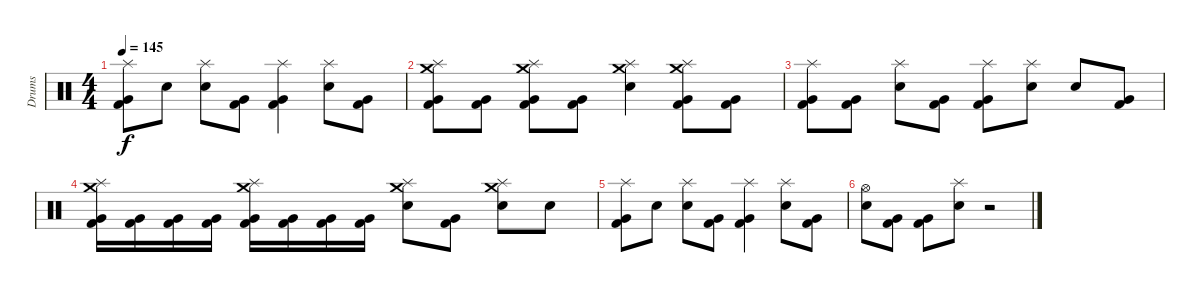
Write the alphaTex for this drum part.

\track ("Drums" "Drums") {instrument percussion}
\staff {score}
\articulation defaults
\ts (4 4)
\tempo 145
\clef neutral
\ks c
("Splash (hit)" "Very Low Tom (hit)" "Kick (hit) 2").8{dy f} "Snare (hit) 2".8 ("Splash (hit)" "Snare (hit) 2").8 ("Very Low Tom (hit)" "Kick (hit) 2").8 ("Splash (hit)" "Very Low Tom (hit)" "Kick (hit) 2").4 ("Splash (hit)" "Snare (hit) 2").8 ("Very Low Tom (hit)" "Kick (hit) 2").8 |
("Splash (hit)" "Crash medium (hit)" "Very Low Tom (hit)" "Kick (hit) 2").8 ("Very Low Tom (hit)" "Kick (hit) 2").8 ("Splash (hit)" "Crash medium (hit)" "Very Low Tom (hit)" "Kick (hit) 2").8 ("Very Low Tom (hit)" "Kick (hit) 2").8 ("Splash (hit)" "Crash medium (hit)" "Snare (hit) 2").4 ("Splash (hit)" "Crash medium (hit)" "Very Low Tom (hit)" "Kick (hit) 2").8 ("Very Low Tom (hit)" "Kick (hit) 2").8 |
("Splash (hit)" "Very Low Tom (hit)" "Kick (hit) 2").8 ("Very Low Tom (hit)" "Kick (hit) 2").8 ("Splash (hit)" "Snare (hit) 2").8 ("Very Low Tom (hit)" "Kick (hit) 2").8 ("Splash (hit)" "Very Low Tom (hit)" "Kick (hit) 2").8 ("Splash (hit)" "Snare (hit) 2").8 "Snare (hit) 2".8 ("Very Low Tom (hit)" "Kick (hit) 2").8 |
("Splash (hit)" "Crash medium (hit)" "Very Low Tom (hit)" "Kick (hit) 2").16 ("Very Low Tom (hit)" "Kick (hit) 2").16 ("Very Low Tom (hit)" "Kick (hit) 2").16 ("Very Low Tom (hit)" "Kick (hit) 2").16 ("Splash (hit)" "Crash medium (hit)" "Very Low Tom (hit)" "Kick (hit) 2").16 ("Very Low Tom (hit)" "Kick (hit) 2").16 ("Very Low Tom (hit)" "Kick (hit) 2").16 ("Very Low Tom (hit)" "Kick (hit) 2").16 ("Splash (hit)" "Crash medium (hit)" "Snare (hit) 2").8 ("Very Low Tom (hit)" "Kick (hit) 2").8 ("Splash (hit)" "Crash medium (hit)" "Snare (hit) 2").8 "Snare (hit) 2".8 |
("Splash (hit)" "Very Low Tom (hit)" "Kick (hit) 2").8 "Snare (hit) 2".8 ("Splash (hit)" "Snare (hit) 2").8 ("Very Low Tom (hit)" "Kick (hit) 2").8 ("Splash (hit)" "Very Low Tom (hit)" "Kick (hit) 2").4 ("Splash (hit)" "Snare (hit) 2").8 ("Very Low Tom (hit)" "Kick (hit) 2").8 |
("Hi-Hat (open)" "Snare (hit) 2").8 ("Very Low Tom (hit)" "Kick (hit) 2").8 ("Very Low Tom (hit)" "Kick (hit) 2").8 ("Splash (hit)" "Snare (hit) 2").8 r.2
